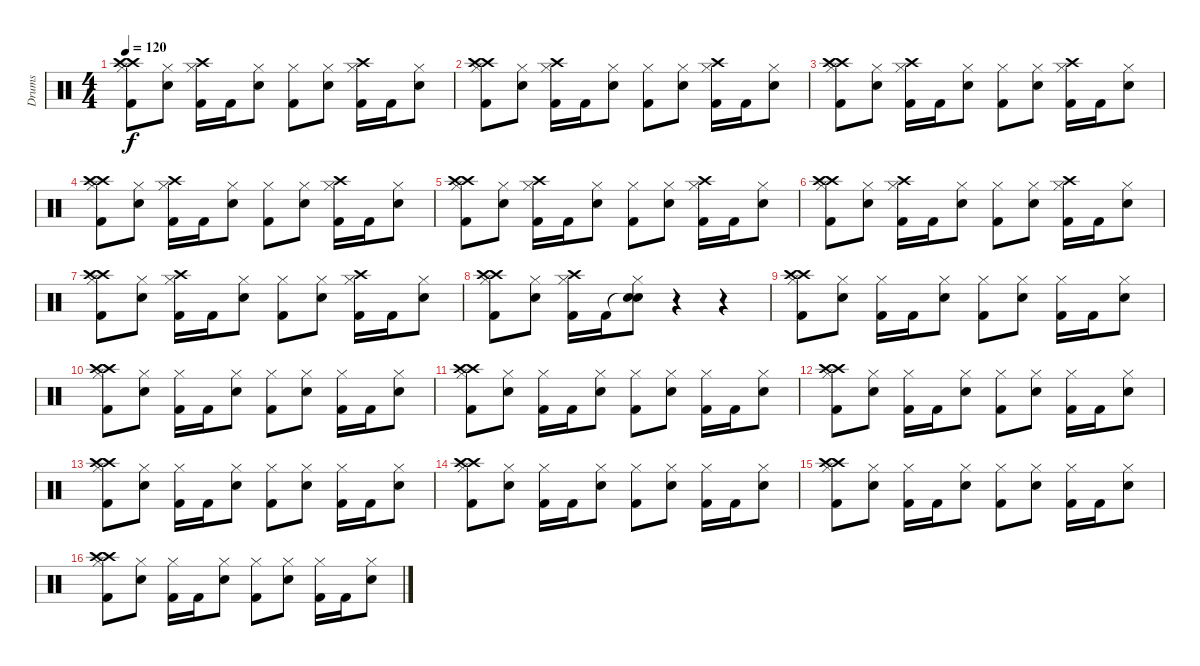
\track ("Drums" "Drums") {instrument percussion}
\staff {score}
\articulation defaults
\ts (4 4)
\tempo 120
\clef neutral
\ks c
("Crash high (hit)" "Hi-Hat (closed)" "Crash high (hit)" "Kick (hit) 2").8{dy f} ("Hi-Hat (closed)" "Electric Snare (hit)").8 ("Hi-Hat (closed)" "Crash high (hit)" "Kick (hit) 2").16 "Kick (hit) 2".16 ("Hi-Hat (closed)" "Electric Snare (hit)").8 ("Hi-Hat (closed)" "Kick (hit) 2").8 ("Hi-Hat (closed)" "Electric Snare (hit)").8 ("Hi-Hat (closed)" "Crash high (hit)" "Kick (hit) 2").16 "Kick (hit) 2".16 ("Hi-Hat (closed)" "Electric Snare (hit)").8 |
("Crash high (hit)" "Hi-Hat (closed)" "Crash high (hit)" "Kick (hit) 2").8 ("Hi-Hat (closed)" "Electric Snare (hit)").8 ("Hi-Hat (closed)" "Crash high (hit)" "Kick (hit) 2").16 "Kick (hit) 2".16 ("Hi-Hat (closed)" "Electric Snare (hit)").8 ("Hi-Hat (closed)" "Kick (hit) 2").8 ("Hi-Hat (closed)" "Electric Snare (hit)").8 ("Hi-Hat (closed)" "Crash high (hit)" "Kick (hit) 2").16 "Kick (hit) 2".16 ("Hi-Hat (closed)" "Electric Snare (hit)").8 |
("Crash high (hit)" "Hi-Hat (closed)" "Crash high (hit)" "Kick (hit) 2").8 ("Hi-Hat (closed)" "Electric Snare (hit)").8 ("Hi-Hat (closed)" "Crash high (hit)" "Kick (hit) 2").16 "Kick (hit) 2".16 ("Hi-Hat (closed)" "Electric Snare (hit)").8 ("Hi-Hat (closed)" "Kick (hit) 2").8 ("Hi-Hat (closed)" "Electric Snare (hit)").8 ("Hi-Hat (closed)" "Crash high (hit)" "Kick (hit) 2").16 "Kick (hit) 2".16 ("Hi-Hat (closed)" "Electric Snare (hit)").8 |
("Crash high (hit)" "Hi-Hat (closed)" "Crash high (hit)" "Kick (hit) 2").8 ("Hi-Hat (closed)" "Electric Snare (hit)").8 ("Hi-Hat (closed)" "Crash high (hit)" "Kick (hit) 2").16 "Kick (hit) 2".16 ("Hi-Hat (closed)" "Electric Snare (hit)").8 ("Hi-Hat (closed)" "Kick (hit) 2").8 ("Hi-Hat (closed)" "Electric Snare (hit)").8 ("Hi-Hat (closed)" "Crash high (hit)" "Kick (hit) 2").16 "Kick (hit) 2".16 ("Hi-Hat (closed)" "Electric Snare (hit)").8 |
("Crash high (hit)" "Hi-Hat (closed)" "Crash high (hit)" "Kick (hit) 2").8 ("Hi-Hat (closed)" "Electric Snare (hit)").8 ("Hi-Hat (closed)" "Crash high (hit)" "Kick (hit) 2").16 "Kick (hit) 2".16 ("Hi-Hat (closed)" "Electric Snare (hit)").8 ("Hi-Hat (closed)" "Kick (hit) 2").8 ("Hi-Hat (closed)" "Electric Snare (hit)").8 ("Hi-Hat (closed)" "Crash high (hit)" "Kick (hit) 2").16 "Kick (hit) 2".16 ("Hi-Hat (closed)" "Electric Snare (hit)").8 |
("Crash high (hit)" "Hi-Hat (closed)" "Crash high (hit)" "Kick (hit) 2").8 ("Hi-Hat (closed)" "Electric Snare (hit)").8 ("Hi-Hat (closed)" "Crash high (hit)" "Kick (hit) 2").16 "Kick (hit) 2".16 ("Hi-Hat (closed)" "Electric Snare (hit)").8 ("Hi-Hat (closed)" "Kick (hit) 2").8 ("Hi-Hat (closed)" "Electric Snare (hit)").8 ("Hi-Hat (closed)" "Crash high (hit)" "Kick (hit) 2").16 "Kick (hit) 2".16 ("Hi-Hat (closed)" "Electric Snare (hit)").8 |
("Crash high (hit)" "Hi-Hat (closed)" "Crash high (hit)" "Kick (hit) 2").8 ("Hi-Hat (closed)" "Electric Snare (hit)").8 ("Hi-Hat (closed)" "Crash high (hit)" "Kick (hit) 2").16 "Kick (hit) 2".16 ("Hi-Hat (closed)" "Electric Snare (hit)").8 ("Hi-Hat (closed)" "Kick (hit) 2").8 ("Hi-Hat (closed)" "Electric Snare (hit)").8 ("Hi-Hat (closed)" "Crash high (hit)" "Kick (hit) 2").16 "Kick (hit) 2".16 ("Hi-Hat (closed)" "Electric Snare (hit)").8 |
("Crash high (hit)" "Hi-Hat (closed)" "Crash high (hit)" "Kick (hit) 2").8 ("Hi-Hat (closed)" "Electric Snare (hit)").8 ("Hi-Hat (closed)" "Crash high (hit)" "Kick (hit) 2").16 "Kick (hit) 2".16 ("Snare (hit)"{t} "Hi-Hat (closed)" "Electric Snare (hit)").8 r.4 r.4 |
("Crash high (hit)" "Hi-Hat (closed)" "Crash high (hit)" "Kick (hit) 2").8 ("Hi-Hat (closed)" "Electric Snare (hit)").8 ("Hi-Hat (closed)" "Kick (hit) 2").16 "Kick (hit) 2".16 ("Hi-Hat (closed)" "Electric Snare (hit)").8 ("Hi-Hat (closed)" "Kick (hit) 2").8 ("Hi-Hat (closed)" "Electric Snare (hit)").8 ("Hi-Hat (closed)" "Kick (hit) 2").16 "Kick (hit) 2".16 ("Hi-Hat (closed)" "Electric Snare (hit)").8 |
("Crash high (hit)" "Hi-Hat (closed)" "Crash high (hit)" "Kick (hit) 2").8 ("Hi-Hat (closed)" "Electric Snare (hit)").8 ("Hi-Hat (closed)" "Kick (hit) 2").16 "Kick (hit) 2".16 ("Hi-Hat (closed)" "Electric Snare (hit)").8 ("Hi-Hat (closed)" "Kick (hit) 2").8 ("Hi-Hat (closed)" "Electric Snare (hit)").8 ("Hi-Hat (closed)" "Kick (hit) 2").16 "Kick (hit) 2".16 ("Hi-Hat (closed)" "Electric Snare (hit)").8 |
("Crash high (hit)" "Hi-Hat (closed)" "Crash high (hit)" "Kick (hit) 2").8 ("Hi-Hat (closed)" "Electric Snare (hit)").8 ("Hi-Hat (closed)" "Kick (hit) 2").16 "Kick (hit) 2".16 ("Hi-Hat (closed)" "Electric Snare (hit)").8 ("Hi-Hat (closed)" "Kick (hit) 2").8 ("Hi-Hat (closed)" "Electric Snare (hit)").8 ("Hi-Hat (closed)" "Kick (hit) 2").16 "Kick (hit) 2".16 ("Hi-Hat (closed)" "Electric Snare (hit)").8 |
("Crash high (hit)" "Hi-Hat (closed)" "Crash high (hit)" "Kick (hit) 2").8 ("Hi-Hat (closed)" "Electric Snare (hit)").8 ("Hi-Hat (closed)" "Kick (hit) 2").16 "Kick (hit) 2".16 ("Hi-Hat (closed)" "Electric Snare (hit)").8 ("Hi-Hat (closed)" "Kick (hit) 2").8 ("Hi-Hat (closed)" "Electric Snare (hit)").8 ("Hi-Hat (closed)" "Kick (hit) 2").16 "Kick (hit) 2".16 ("Hi-Hat (closed)" "Electric Snare (hit)").8 |
("Crash high (hit)" "Hi-Hat (closed)" "Crash high (hit)" "Kick (hit) 2").8 ("Hi-Hat (closed)" "Electric Snare (hit)").8 ("Hi-Hat (closed)" "Kick (hit) 2").16 "Kick (hit) 2".16 ("Hi-Hat (closed)" "Electric Snare (hit)").8 ("Hi-Hat (closed)" "Kick (hit) 2").8 ("Hi-Hat (closed)" "Electric Snare (hit)").8 ("Hi-Hat (closed)" "Kick (hit) 2").16 "Kick (hit) 2".16 ("Hi-Hat (closed)" "Electric Snare (hit)").8 |
("Crash high (hit)" "Hi-Hat (closed)" "Crash high (hit)" "Kick (hit) 2").8 ("Hi-Hat (closed)" "Electric Snare (hit)").8 ("Hi-Hat (closed)" "Kick (hit) 2").16 "Kick (hit) 2".16 ("Hi-Hat (closed)" "Electric Snare (hit)").8 ("Hi-Hat (closed)" "Kick (hit) 2").8 ("Hi-Hat (closed)" "Electric Snare (hit)").8 ("Hi-Hat (closed)" "Kick (hit) 2").16 "Kick (hit) 2".16 ("Hi-Hat (closed)" "Electric Snare (hit)").8 |
("Crash high (hit)" "Hi-Hat (closed)" "Crash high (hit)" "Kick (hit) 2").8 ("Hi-Hat (closed)" "Electric Snare (hit)").8 ("Hi-Hat (closed)" "Kick (hit) 2").16 "Kick (hit) 2".16 ("Hi-Hat (closed)" "Electric Snare (hit)").8 ("Hi-Hat (closed)" "Kick (hit) 2").8 ("Hi-Hat (closed)" "Electric Snare (hit)").8 ("Hi-Hat (closed)" "Kick (hit) 2").16 "Kick (hit) 2".16 ("Hi-Hat (closed)" "Electric Snare (hit)").8 |
("Crash high (hit)" "Hi-Hat (closed)" "Crash high (hit)" "Kick (hit) 2").8 ("Hi-Hat (closed)" "Electric Snare (hit)").8 ("Hi-Hat (closed)" "Kick (hit) 2").16 "Kick (hit) 2".16 ("Hi-Hat (closed)" "Electric Snare (hit)").8 ("Hi-Hat (closed)" "Kick (hit) 2").8 ("Hi-Hat (closed)" "Electric Snare (hit)").8 ("Hi-Hat (closed)" "Kick (hit) 2").16 "Kick (hit) 2".16 ("Hi-Hat (closed)" "Electric Snare (hit)").8
